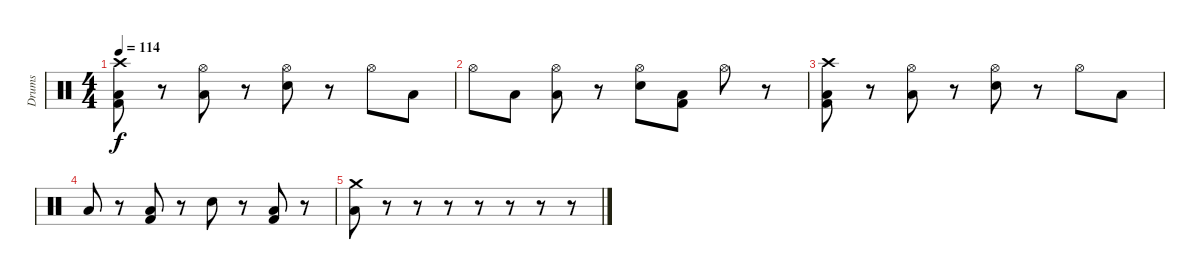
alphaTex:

\track ("Drums" "Drums") {instrument percussion}
\staff {score}
\articulation defaults
\ts (4 4)
\tempo 114
\clef neutral
\ks c
("Crash high (hit)" "Kick (hit) 2" "Low Floor Tom (hit)").8{dy f} r.8 ("Hi-Hat (open)" "Low Floor Tom (hit)").8 r.8 ("Hi-Hat (open)" "Snare (hit) 2").8 r.8 "Hi-Hat (open)".8 "Low Floor Tom (hit)".8 |
"Hi-Hat (open)".8 "Low Floor Tom (hit)".8 ("Hi-Hat (open)" "Low Floor Tom (hit)").8 r.8 ("Hi-Hat (open)" "Snare (hit) 2").8 ("Kick (hit) 2" "Low Floor Tom (hit)").8 "Hi-Hat (open)".8 r.8 |
("Crash high (hit)" "Kick (hit) 2" "Low Floor Tom (hit)").8 r.8 ("Hi-Hat (open)" "Low Floor Tom (hit)").8 r.8 ("Hi-Hat (open)" "Snare (hit) 2").8 r.8 "Hi-Hat (open)".8 "Low Floor Tom (hit)".8 |
"Low Floor Tom (hit)".8 r.8 ("Kick (hit) 2" "Low Floor Tom (hit)").8 r.8 "Snare (hit) 2".8 r.8 ("Kick (hit) 2" "Low Floor Tom (hit)").8 r.8 |
("Crash medium (hit)" "Low Floor Tom (hit)").8 r.8 r.8 r.8 r.8 r.8 r.8 r.8
